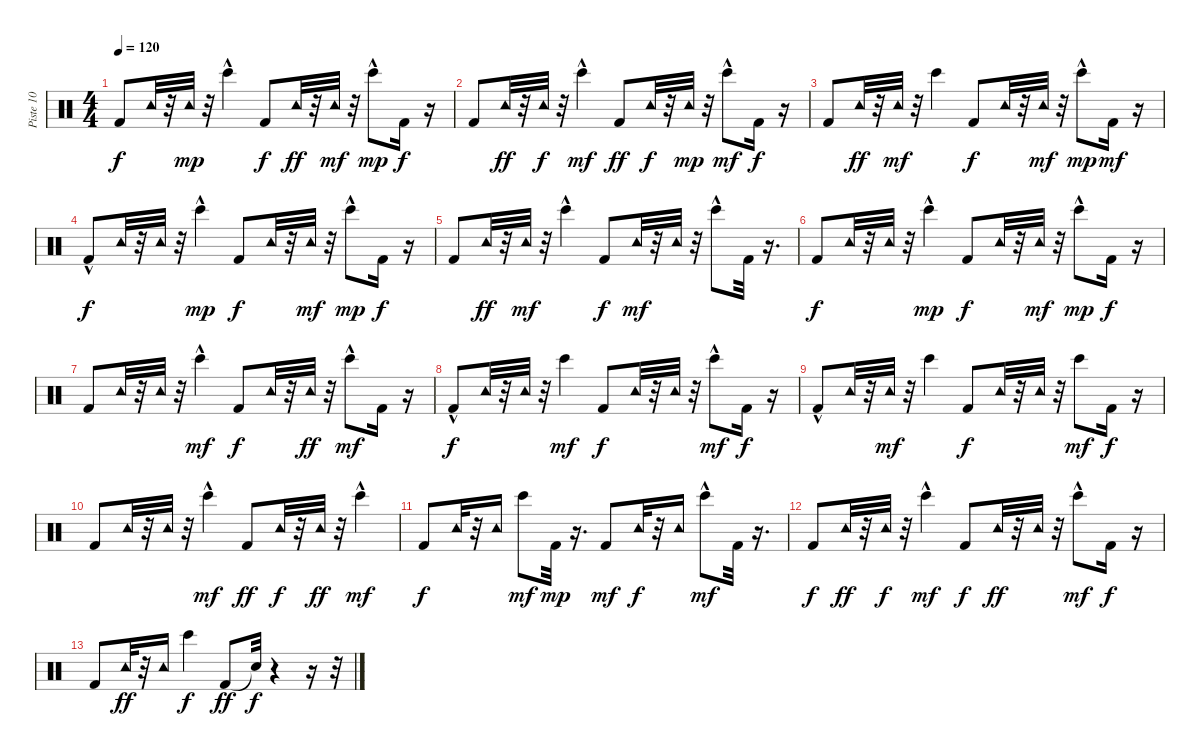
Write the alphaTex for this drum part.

\track ("Piste 10" "Piste 10") {instrument percussion}
\staff {score}
\articulation defaults
\ts (4 4)
\tempo 120
\clef neutral
\ks c "Kick (hit) 2".8{dy f} "Tambourine (hit)".32
r.32 "Tambourine (hit)".32{dy mp} r.32 "Bongo High (hit)"{hac}.4 "Kick (hit) 2".8{dy f} "Tambourine (hit)".32{dy ff} r.32 "Tambourine (hit)".32{dy mf} r.32 "Bongo High (hit)"{hac}.8{dy mp} "Kick (hit) 2".16{dy f} r.16 |
"Kick (hit) 2".8 "Tambourine (hit)".32{dy ff} r.32 "Tambourine (hit)".32{dy f} r.32 "Bongo High (hit)"{hac}.4{dy mf} "Kick (hit) 2".8{dy ff} "Tambourine (hit)".32{dy f} r.32 "Tambourine (hit)".32{dy mp} r.32 "Bongo High (hit)"{hac}.8{dy mf} "Kick (hit) 2".16{dy f} r.16 |
"Kick (hit) 2".8 "Tambourine (hit)".32{dy ff} r.32 "Tambourine (hit)".32{dy mf} r.32 "Bongo High (hit)".4 "Kick (hit) 2".8{dy f} "Tambourine (hit)".32 r.32 "Tambourine (hit)".32{dy mf} r.32 "Bongo High (hit)"{hac}.8{dy mp} "Kick (hit) 2".16{dy mf} r.16 |
"Kick (hit) 2"{hac}.8{dy f} "Tambourine (hit)".32 r.32 "Tambourine (hit)".32 r.32 "Bongo High (hit)"{hac}.4{dy mp} "Kick (hit) 2".8{dy f} "Tambourine (hit)".32 r.32 "Tambourine (hit)".32{dy mf} r.32 "Bongo High (hit)"{hac}.8{dy mp} "Kick (hit) 2".16{dy f} r.16 |
"Kick (hit) 2".8 "Tambourine (hit)".32{dy ff} r.32 "Tambourine (hit)".32{dy mf} r.32 "Bongo High (hit)"{hac}.4 "Kick (hit) 2".8{dy f} "Tambourine (hit)".32{dy mf} r.32 "Tambourine (hit)".32 r.32 "Bongo High (hit)"{hac}.8 "Kick (hit) 2".32 r.16{d} |
"Kick (hit) 2".8{dy f} "Tambourine (hit)".32 r.32 "Tambourine (hit)".32 r.32 "Bongo High (hit)"{hac}.4{dy mp} "Kick (hit) 2".8{dy f} "Tambourine (hit)".32 r.32 "Tambourine (hit)".32{dy mf} r.32 "Bongo High (hit)"{hac}.8{dy mp} "Kick (hit) 2".16{dy f} r.16 |
"Kick (hit) 2".8 "Tambourine (hit)".32 r.32 "Tambourine (hit)".32 r.32 "Bongo High (hit)"{hac}.4{dy mf} "Kick (hit) 2".8{dy f} "Tambourine (hit)".32 r.32 "Tambourine (hit)".32{dy ff} r.32 "Bongo High (hit)"{hac}.8{dy mf} "Kick (hit) 2".16 r.16 |
"Kick (hit) 2"{hac}.8{dy f} "Tambourine (hit)".32 r.32 "Tambourine (hit)".32 r.32 "Bongo High (hit)".4{dy mf} "Kick (hit) 2".8{dy f} "Tambourine (hit)".32 r.32 "Tambourine (hit)".32 r.32 "Bongo High (hit)"{hac}.8{dy mf} "Kick (hit) 2".16{dy f} r.16 |
"Kick (hit) 2"{hac}.8 "Tambourine (hit)".32 r.32 "Tambourine (hit)".32{dy mf} r.32 "Bongo High (hit)".4 "Kick (hit) 2".8{dy f} "Tambourine (hit)".32 r.32 "Tambourine (hit)".32 r.32 "Bongo High (hit)".8{dy mf} "Kick (hit) 2".16{dy f} r.16 |
"Kick (hit) 2".8 "Tambourine (hit)".32 r.32 "Tambourine (hit)".32 r.32 "Bongo High (hit)"{hac}.4{dy mf} "Kick (hit) 2".8{dy ff} "Tambourine (hit)".32{dy f} r.32 "Tambourine (hit)".32{dy ff} r.32 "Bongo High (hit)"{hac}.4{dy mf} |
"Kick (hit) 2".8{dy f} "Tambourine (hit)".32 r.32 "Tambourine (hit)".16 "Bongo High (hit)".8{dy mf} "Kick (hit) 2".32{dy mp} r.16{d} "Kick (hit) 2".8{dy mf} "Tambourine (hit)".32{dy f} r.32 "Tambourine (hit)".16 "Bongo High (hit)"{hac}.8{dy mf} "Kick (hit) 2".32 r.16{d} |
"Kick (hit) 2".8{dy f} "Tambourine (hit)".32{dy ff} r.32 "Tambourine (hit)".32{dy f} r.32 "Bongo High (hit)"{hac}.4{dy mf} "Kick (hit) 2".8{dy f} "Tambourine (hit)".32{dy ff} r.32 "Tambourine (hit)".32 r.32 "Bongo High (hit)"{hac}.8{dy mf} "Kick (hit) 2".16{dy f} r.16 |
"Kick (hit) 2".8 "Tambourine (hit)".32{dy ff} r.32 "Tambourine (hit)".16 "Bongo High (hit)".4{dy f} "Kick (hit) 2".8{dy ff} "Snare (hit)"{t}.32{dy f} r.4 r.16 r.32
